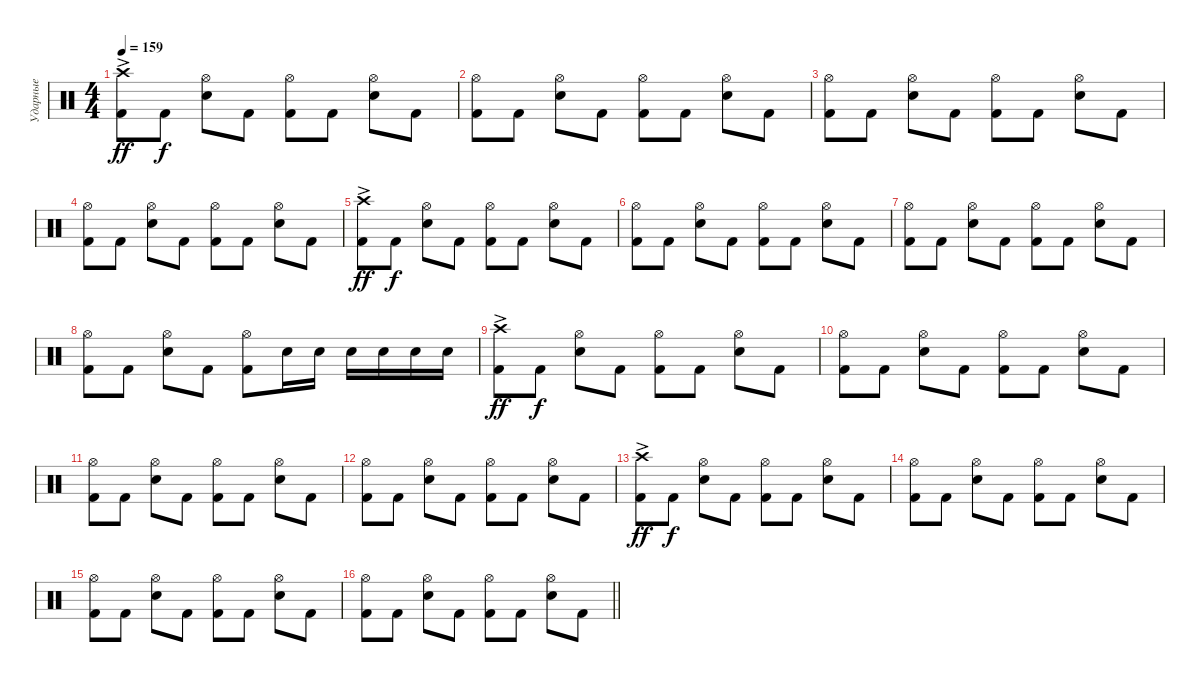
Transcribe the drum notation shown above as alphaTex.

\track ("Ударные" "Ударные") {instrument percussion}
\staff {score}
\articulation defaults
\ts (4 4)
\tempo 159
\clef neutral
\ks c
("Kick (hit) 2" "Crash high (hit)"{ac}).8{dy ff} "Kick (hit) 2".8{dy f} ("Snare (hit) 2" "Hi-Hat (open)").8 "Kick (hit) 2".8 ("Kick (hit) 2" "Hi-Hat (open)").8 "Kick (hit) 2".8 ("Snare (hit) 2" "Hi-Hat (open)").8 "Kick (hit) 2".8 |
("Kick (hit) 2" "Hi-Hat (open)").8 "Kick (hit) 2".8 ("Snare (hit) 2" "Hi-Hat (open)").8 "Kick (hit) 2".8 ("Kick (hit) 2" "Hi-Hat (open)").8 "Kick (hit) 2".8 ("Snare (hit) 2" "Hi-Hat (open)").8 "Kick (hit) 2".8 |
("Kick (hit) 2" "Hi-Hat (open)").8 "Kick (hit) 2".8 ("Snare (hit) 2" "Hi-Hat (open)").8 "Kick (hit) 2".8 ("Kick (hit) 2" "Hi-Hat (open)").8 "Kick (hit) 2".8 ("Snare (hit) 2" "Hi-Hat (open)").8 "Kick (hit) 2".8 |
("Kick (hit) 2" "Hi-Hat (open)").8 "Kick (hit) 2".8 ("Snare (hit) 2" "Hi-Hat (open)").8 "Kick (hit) 2".8 ("Kick (hit) 2" "Hi-Hat (open)").8 "Kick (hit) 2".8 ("Snare (hit) 2" "Hi-Hat (open)").8 "Kick (hit) 2".8 |
("Kick (hit) 2" "Crash high (hit)"{ac}).8{dy ff} "Kick (hit) 2".8{dy f} ("Snare (hit) 2" "Hi-Hat (open)").8 "Kick (hit) 2".8 ("Kick (hit) 2" "Hi-Hat (open)").8 "Kick (hit) 2".8 ("Snare (hit) 2" "Hi-Hat (open)").8 "Kick (hit) 2".8 |
("Kick (hit) 2" "Hi-Hat (open)").8 "Kick (hit) 2".8 ("Snare (hit) 2" "Hi-Hat (open)").8 "Kick (hit) 2".8 ("Kick (hit) 2" "Hi-Hat (open)").8 "Kick (hit) 2".8 ("Snare (hit) 2" "Hi-Hat (open)").8 "Kick (hit) 2".8 |
("Kick (hit) 2" "Hi-Hat (open)").8 "Kick (hit) 2".8 ("Snare (hit) 2" "Hi-Hat (open)").8 "Kick (hit) 2".8 ("Kick (hit) 2" "Hi-Hat (open)").8 "Kick (hit) 2".8 ("Snare (hit) 2" "Hi-Hat (open)").8 "Kick (hit) 2".8 |
("Kick (hit) 2" "Hi-Hat (open)").8 "Kick (hit) 2".8 ("Snare (hit) 2" "Hi-Hat (open)").8 "Kick (hit) 2".8 ("Kick (hit) 2" "Hi-Hat (open)").8 "Snare (hit) 2".16 "Snare (hit) 2".16 "Snare (hit) 2".16 "Snare (hit) 2".16 "Snare (hit) 2".16 "Snare (hit) 2".16 |
("Kick (hit) 2" "Crash high (hit)"{ac}).8{dy ff} "Kick (hit) 2".8{dy f} ("Snare (hit) 2" "Hi-Hat (open)").8 "Kick (hit) 2".8 ("Kick (hit) 2" "Hi-Hat (open)").8 "Kick (hit) 2".8 ("Snare (hit) 2" "Hi-Hat (open)").8 "Kick (hit) 2".8 |
("Kick (hit) 2" "Hi-Hat (open)").8 "Kick (hit) 2".8 ("Snare (hit) 2" "Hi-Hat (open)").8 "Kick (hit) 2".8 ("Kick (hit) 2" "Hi-Hat (open)").8 "Kick (hit) 2".8 ("Snare (hit) 2" "Hi-Hat (open)").8 "Kick (hit) 2".8 |
("Kick (hit) 2" "Hi-Hat (open)").8 "Kick (hit) 2".8 ("Snare (hit) 2" "Hi-Hat (open)").8 "Kick (hit) 2".8 ("Kick (hit) 2" "Hi-Hat (open)").8 "Kick (hit) 2".8 ("Snare (hit) 2" "Hi-Hat (open)").8 "Kick (hit) 2".8 |
("Kick (hit) 2" "Hi-Hat (open)").8 "Kick (hit) 2".8 ("Snare (hit) 2" "Hi-Hat (open)").8 "Kick (hit) 2".8 ("Kick (hit) 2" "Hi-Hat (open)").8 "Kick (hit) 2".8 ("Snare (hit) 2" "Hi-Hat (open)").8 "Kick (hit) 2".8 |
("Kick (hit) 2" "Crash high (hit)"{ac}).8{dy ff} "Kick (hit) 2".8{dy f} ("Snare (hit) 2" "Hi-Hat (open)").8 "Kick (hit) 2".8 ("Kick (hit) 2" "Hi-Hat (open)").8 "Kick (hit) 2".8 ("Snare (hit) 2" "Hi-Hat (open)").8 "Kick (hit) 2".8 |
("Kick (hit) 2" "Hi-Hat (open)").8 "Kick (hit) 2".8 ("Snare (hit) 2" "Hi-Hat (open)").8 "Kick (hit) 2".8 ("Kick (hit) 2" "Hi-Hat (open)").8 "Kick (hit) 2".8 ("Snare (hit) 2" "Hi-Hat (open)").8 "Kick (hit) 2".8 |
("Kick (hit) 2" "Hi-Hat (open)").8 "Kick (hit) 2".8 ("Snare (hit) 2" "Hi-Hat (open)").8 "Kick (hit) 2".8 ("Kick (hit) 2" "Hi-Hat (open)").8 "Kick (hit) 2".8 ("Snare (hit) 2" "Hi-Hat (open)").8 "Kick (hit) 2".8 |
\barLineRight lightlight
("Kick (hit) 2" "Hi-Hat (open)").8 "Kick (hit) 2".8 ("Snare (hit) 2" "Hi-Hat (open)").8 "Kick (hit) 2".8 ("Kick (hit) 2" "Hi-Hat (open)").8 "Kick (hit) 2".8 ("Snare (hit) 2" "Hi-Hat (open)").8 "Kick (hit) 2".8
